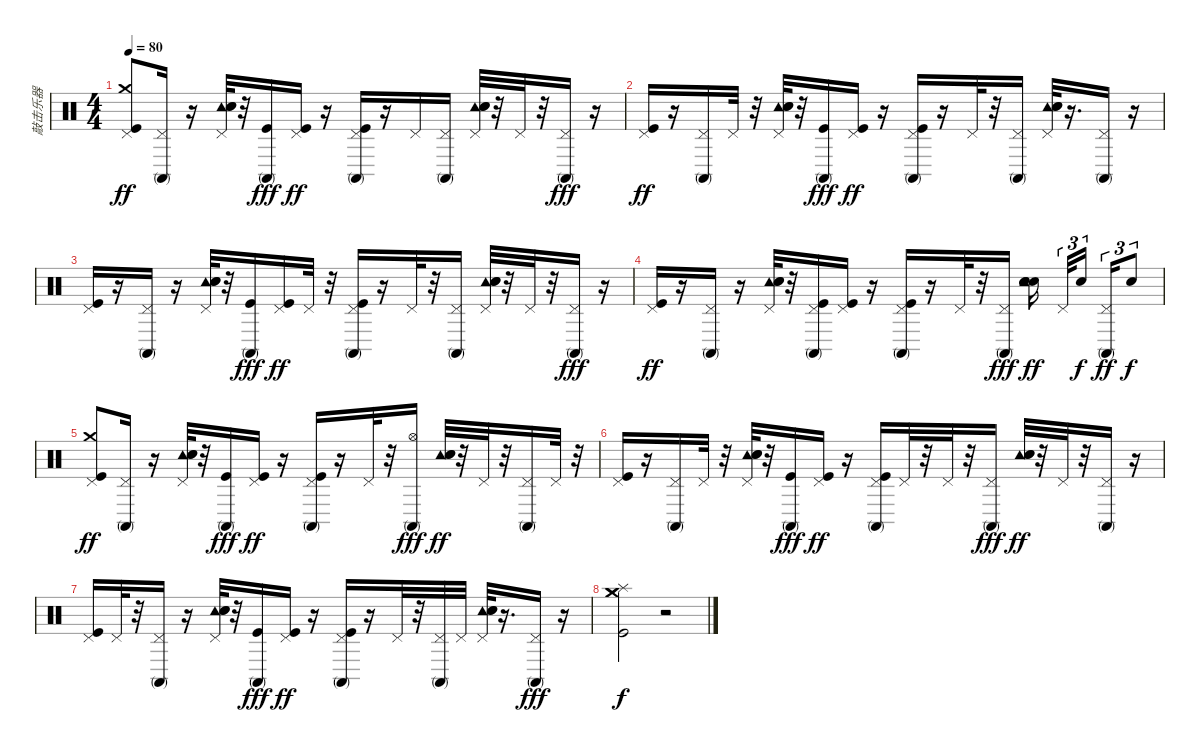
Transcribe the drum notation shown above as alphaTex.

\track ("敲击乐器" "敲击乐器") {instrument percussion}
\staff {score}
\articulation defaults
\ts (4 4)
\tempo 80
\clef neutral
\ks c
("Kick (hit)" "Crash medium (hit)" "Pedal Hi-Hat (hit)").8{dy ff} ("Conga high (mute)" "Pedal Hi-Hat (hit)").16 r.16 ("Pedal Hi-Hat (hit)" "Tambourine (hit)" "Hand Clap (hit)" "Electric Snare (hit)").32 r.32 ("Conga high (mute)" "Kick (hit)").16{dy fff} ("Kick (hit)" "Pedal Hi-Hat (hit)").16{dy ff} r.16 ("Conga high (mute)" "Kick (hit)" "Pedal Hi-Hat (hit)").16 r.16 "Pedal Hi-Hat (hit)".16 ("Conga high (mute)" "Pedal Hi-Hat (hit)").16 ("Pedal Hi-Hat (hit)" "Tambourine (hit)" "Hand Clap (hit)" "Electric Snare (hit)").32 r.32 "Pedal Hi-Hat (hit)".32 r.32 ("Conga high (mute)" "Pedal Hi-Hat (hit)").16{dy fff} r.16 |
("Kick (hit)" "Pedal Hi-Hat (hit)").16{dy ff} r.16 ("Conga high (mute)" "Pedal Hi-Hat (hit)").16 "Pedal Hi-Hat (hit)".32 r.32 ("Pedal Hi-Hat (hit)" "Tambourine (hit)" "Hand Clap (hit)" "Electric Snare (hit)").32 r.32 ("Conga high (mute)" "Kick (hit)").16{dy fff} ("Kick (hit)" "Pedal Hi-Hat (hit)").16{dy ff} r.16 ("Conga high (mute)" "Kick (hit)" "Pedal Hi-Hat (hit)").16 r.16 "Pedal Hi-Hat (hit)".32 r.32 ("Conga high (mute)" "Pedal Hi-Hat (hit)").16 ("Pedal Hi-Hat (hit)" "Tambourine (hit)" "Hand Clap (hit)" "Electric Snare (hit)").32 r.16{d} ("Conga high (mute)" "Pedal Hi-Hat (hit)").16 r.16 |
("Kick (hit)" "Pedal Hi-Hat (hit)").16 r.16 ("Conga high (mute)" "Pedal Hi-Hat (hit)").16 r.16 ("Pedal Hi-Hat (hit)" "Tambourine (hit)" "Hand Clap (hit)" "Electric Snare (hit)").32 r.32 ("Conga high (mute)" "Kick (hit)").16{dy fff} ("Kick (hit)" "Pedal Hi-Hat (hit)").16{dy ff} "Pedal Hi-Hat (hit)".32 r.32 ("Conga high (mute)" "Kick (hit)" "Pedal Hi-Hat (hit)").16 r.16 "Pedal Hi-Hat (hit)".32 r.32 ("Conga high (mute)" "Pedal Hi-Hat (hit)").16 ("Pedal Hi-Hat (hit)" "Tambourine (hit)" "Hand Clap (hit)" "Electric Snare (hit)").32 r.32 "Pedal Hi-Hat (hit)".32 r.32 ("Conga high (mute)" "Pedal Hi-Hat (hit)").16{dy fff} r.16 |
("Kick (hit)" "Pedal Hi-Hat (hit)").16{dy ff} r.16 ("Conga high (mute)" "Pedal Hi-Hat (hit)").16 r.16 ("Pedal Hi-Hat (hit)" "Tambourine (hit)" "Hand Clap (hit)" "Electric Snare (hit)").32 r.32 ("Conga high (mute)" "Kick (hit)" "Pedal Hi-Hat (hit)").16 ("Kick (hit)" "Pedal Hi-Hat (hit)").16 r.16 ("Conga high (mute)" "Kick (hit)" "Pedal Hi-Hat (hit)").16 r.16 "Pedal Hi-Hat (hit)".32 r.32 ("Conga high (mute)" "Pedal Hi-Hat (hit)").16{dy fff} ("Hand Clap (hit)" "Tambourine (hit)" "Hand Clap (hit)" "Electric Snare (hit)").16{dy ff beam splitsecondary} "Pedal Hi-Hat (hit)".32{tu (3 2)} "Hand Clap (hit)".16{tu (3 2) dy f beam splitsecondary} ("Conga high (mute)" "Pedal Hi-Hat (hit)").16{tu (3 2) dy ff} "Hand Clap (hit)".8{tu (3 2) dy f} |
("Kick (hit)" "Crash medium (hit)" "Pedal Hi-Hat (hit)").8{dy ff} ("Conga high (mute)" "Pedal Hi-Hat (hit)").16 r.16 ("Pedal Hi-Hat (hit)" "Tambourine (hit)" "Hand Clap (hit)" "Electric Snare (hit)").32 r.32 ("Conga high (mute)" "Kick (hit)").16{dy fff} ("Kick (hit)" "Pedal Hi-Hat (hit)").16{dy ff} r.16 ("Conga high (mute)" "Kick (hit)" "Pedal Hi-Hat (hit)").16 r.16 "Pedal Hi-Hat (hit)".32 r.32 ("Conga high (mute)" "Hi-Hat (open)").16{dy fff} ("Tambourine (hit)" "Hand Clap (hit)" "Electric Snare (hit)").32{dy ff} r.32 "Pedal Hi-Hat (hit)".32 r.32 ("Conga high (mute)" "Pedal Hi-Hat (hit)").16 "Pedal Hi-Hat (hit)".32 r.32 |
("Kick (hit)" "Pedal Hi-Hat (hit)").16 r.16 ("Conga high (mute)" "Pedal Hi-Hat (hit)").16 "Pedal Hi-Hat (hit)".32 r.32 ("Pedal Hi-Hat (hit)" "Tambourine (hit)" "Hand Clap (hit)" "Electric Snare (hit)").32 r.32 ("Conga high (mute)" "Kick (hit)").16{dy fff} ("Kick (hit)" "Pedal Hi-Hat (hit)").16{dy ff} r.16 ("Conga high (mute)" "Kick (hit)" "Pedal Hi-Hat (hit)").16 "Pedal Hi-Hat (hit)".32 r.32 "Pedal Hi-Hat (hit)".32 r.32 ("Conga high (mute)" "Pedal Hi-Hat (hit)").16{dy fff} ("Tambourine (hit)" "Hand Clap (hit)" "Electric Snare (hit)").32{dy ff} r.32 "Pedal Hi-Hat (hit)".32 r.32 ("Conga high (mute)" "Pedal Hi-Hat (hit)").16 r.16 |
("Kick (hit)" "Pedal Hi-Hat (hit)").16 "Pedal Hi-Hat (hit)".32 r.32 ("Conga high (mute)" "Pedal Hi-Hat (hit)").16 r.16 ("Pedal Hi-Hat (hit)" "Tambourine (hit)" "Hand Clap (hit)" "Electric Snare (hit)").32 r.32 ("Conga high (mute)" "Kick (hit)").16{dy fff} ("Kick (hit)" "Pedal Hi-Hat (hit)").16{dy ff} r.16 ("Conga high (mute)" "Kick (hit)" "Pedal Hi-Hat (hit)").16 r.16 "Pedal Hi-Hat (hit)".32 r.32 ("Conga high (mute)" "Pedal Hi-Hat (hit)").32 "Pedal Hi-Hat (hit)".32 ("Pedal Hi-Hat (hit)" "Tambourine (hit)" "Hand Clap (hit)" "Electric Snare (hit)").32 r.16{d} ("Conga high (mute)" "Pedal Hi-Hat (hit)").16{dy fff} r.16 |
("Crash medium (hit)" "Splash (hit)" "Kick (hit)" "Crash medium (hit)").2{dy f} r.2
